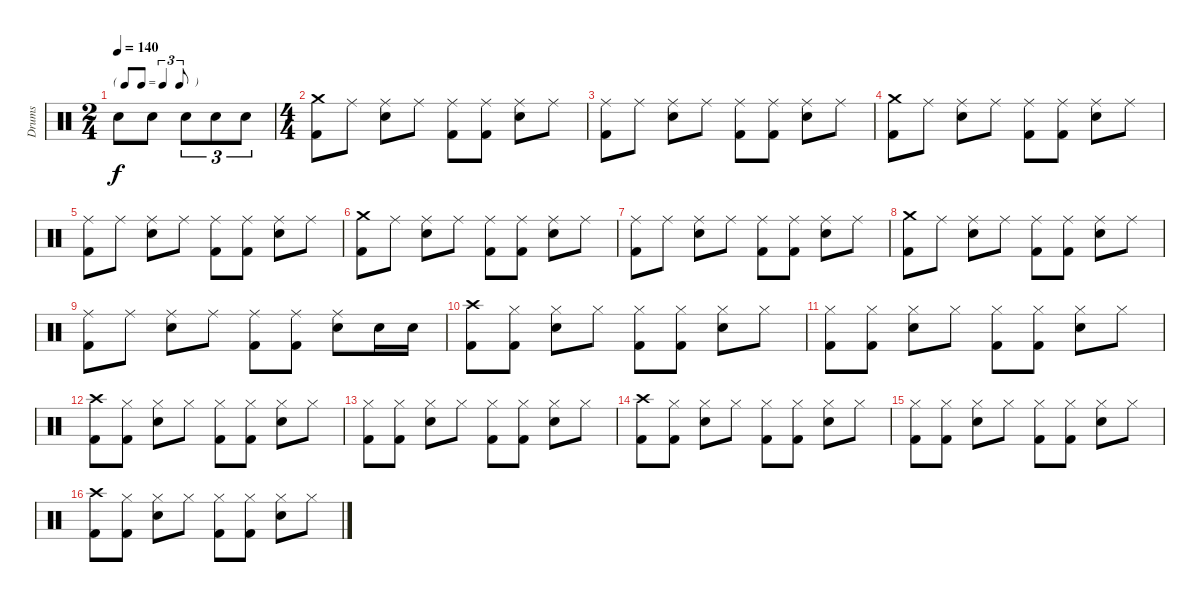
\track ("Drums" "Drums") {instrument percussion}
\staff {score}
\articulation defaults
\ts (2 4)
\tf triplet8th
\tempo 140
\clef neutral
\ks c "Electric Snare (hit)".8{dy f} "Electric Snare (hit)".8 "Electric Snare (hit)".8{tu (3 2)} "Electric Snare (hit)".8{tu (3 2)} "Electric Snare (hit)".8{tu (3 2)}
|
\ts (4 4)
("Crash medium (hit)" "Kick (hit) 2").8 "Ride (middle)".8 ("Ride (middle)" "Electric Snare (hit)").8 "Ride (middle)".8 ("Ride (middle)" "Kick (hit) 2").8 ("Ride (middle)" "Kick (hit) 2").8 ("Ride (middle)" "Electric Snare (hit)").8 "Ride (middle)".8 |
("Ride (middle)" "Kick (hit) 2").8 "Ride (middle)".8 ("Ride (middle)" "Electric Snare (hit)").8 "Ride (middle)".8 ("Ride (middle)" "Kick (hit) 2").8 ("Ride (middle)" "Kick (hit) 2").8 ("Ride (middle)" "Electric Snare (hit)").8 "Ride (middle)".8 |
("Crash medium (hit)" "Kick (hit) 2").8 "Ride (middle)".8 ("Ride (middle)" "Electric Snare (hit)").8 "Ride (middle)".8 ("Ride (middle)" "Kick (hit) 2").8 ("Ride (middle)" "Kick (hit) 2").8 ("Ride (middle)" "Electric Snare (hit)").8 "Ride (middle)".8 |
("Ride (middle)" "Kick (hit) 2").8 "Ride (middle)".8 ("Ride (middle)" "Electric Snare (hit)").8 "Ride (middle)".8 ("Ride (middle)" "Kick (hit) 2").8 ("Ride (middle)" "Kick (hit) 2").8 ("Ride (middle)" "Electric Snare (hit)").8 "Ride (middle)".8 |
("Crash medium (hit)" "Kick (hit) 2").8 "Ride (middle)".8 ("Ride (middle)" "Electric Snare (hit)").8 "Ride (middle)".8 ("Ride (middle)" "Kick (hit) 2").8 ("Ride (middle)" "Kick (hit) 2").8 ("Ride (middle)" "Electric Snare (hit)").8 "Ride (middle)".8 |
("Ride (middle)" "Kick (hit) 2").8 "Ride (middle)".8 ("Ride (middle)" "Electric Snare (hit)").8 "Ride (middle)".8 ("Ride (middle)" "Kick (hit) 2").8 ("Ride (middle)" "Kick (hit) 2").8 ("Ride (middle)" "Electric Snare (hit)").8 "Ride (middle)".8 |
("Crash medium (hit)" "Kick (hit) 2").8 "Ride (middle)".8 ("Ride (middle)" "Electric Snare (hit)").8 "Ride (middle)".8 ("Ride (middle)" "Kick (hit) 2").8 ("Ride (middle)" "Kick (hit) 2").8 ("Ride (middle)" "Electric Snare (hit)").8 "Ride (middle)".8 |
("Ride (middle)" "Kick (hit) 2").8 "Ride (middle)".8 ("Ride (middle)" "Electric Snare (hit)").8 "Ride (middle)".8 ("Ride (middle)" "Kick (hit) 2").8 ("Ride (middle)" "Kick (hit) 2").8 ("Ride (middle)" "Electric Snare (hit)").8 "Electric Snare (hit)".16 "Electric Snare (hit)".16 |
("Crash high (hit)" "Kick (hit) 2").8 ("Hi-Hat (closed)" "Kick (hit) 2").8 ("Hi-Hat (closed)" "Electric Snare (hit)").8 "Hi-Hat (closed)".8 ("Hi-Hat (closed)" "Kick (hit) 2").8 ("Hi-Hat (closed)" "Kick (hit) 2").8 ("Hi-Hat (closed)" "Electric Snare (hit)").8 "Hi-Hat (closed)".8 |
("Hi-Hat (closed)" "Kick (hit) 2").8 ("Hi-Hat (closed)" "Kick (hit) 2").8 ("Hi-Hat (closed)" "Electric Snare (hit)").8 "Hi-Hat (closed)".8 ("Hi-Hat (closed)" "Kick (hit) 2").8 ("Hi-Hat (closed)" "Kick (hit) 2").8 ("Hi-Hat (closed)" "Electric Snare (hit)").8 "Hi-Hat (closed)".8 |
("Crash high (hit)" "Kick (hit) 2").8 ("Hi-Hat (closed)" "Kick (hit) 2").8 ("Hi-Hat (closed)" "Electric Snare (hit)").8 "Hi-Hat (closed)".8 ("Hi-Hat (closed)" "Kick (hit) 2").8 ("Hi-Hat (closed)" "Kick (hit) 2").8 ("Hi-Hat (closed)" "Electric Snare (hit)").8 "Hi-Hat (closed)".8 |
("Hi-Hat (closed)" "Kick (hit) 2").8 ("Hi-Hat (closed)" "Kick (hit) 2").8 ("Hi-Hat (closed)" "Electric Snare (hit)").8 "Hi-Hat (closed)".8 ("Hi-Hat (closed)" "Kick (hit) 2").8 ("Hi-Hat (closed)" "Kick (hit) 2").8 ("Hi-Hat (closed)" "Electric Snare (hit)").8 "Hi-Hat (closed)".8 |
("Crash high (hit)" "Kick (hit) 2").8 ("Hi-Hat (closed)" "Kick (hit) 2").8 ("Hi-Hat (closed)" "Electric Snare (hit)").8 "Hi-Hat (closed)".8 ("Hi-Hat (closed)" "Kick (hit) 2").8 ("Hi-Hat (closed)" "Kick (hit) 2").8 ("Hi-Hat (closed)" "Electric Snare (hit)").8 "Hi-Hat (closed)".8 |
("Hi-Hat (closed)" "Kick (hit) 2").8 ("Hi-Hat (closed)" "Kick (hit) 2").8 ("Hi-Hat (closed)" "Electric Snare (hit)").8 "Hi-Hat (closed)".8 ("Hi-Hat (closed)" "Kick (hit) 2").8 ("Hi-Hat (closed)" "Kick (hit) 2").8 ("Hi-Hat (closed)" "Electric Snare (hit)").8 "Hi-Hat (closed)".8 |
("Crash high (hit)" "Kick (hit) 2").8 ("Hi-Hat (closed)" "Kick (hit) 2").8 ("Hi-Hat (closed)" "Electric Snare (hit)").8 "Hi-Hat (closed)".8 ("Hi-Hat (closed)" "Kick (hit) 2").8 ("Hi-Hat (closed)" "Kick (hit) 2").8 ("Hi-Hat (closed)" "Electric Snare (hit)").8 "Hi-Hat (closed)".8
